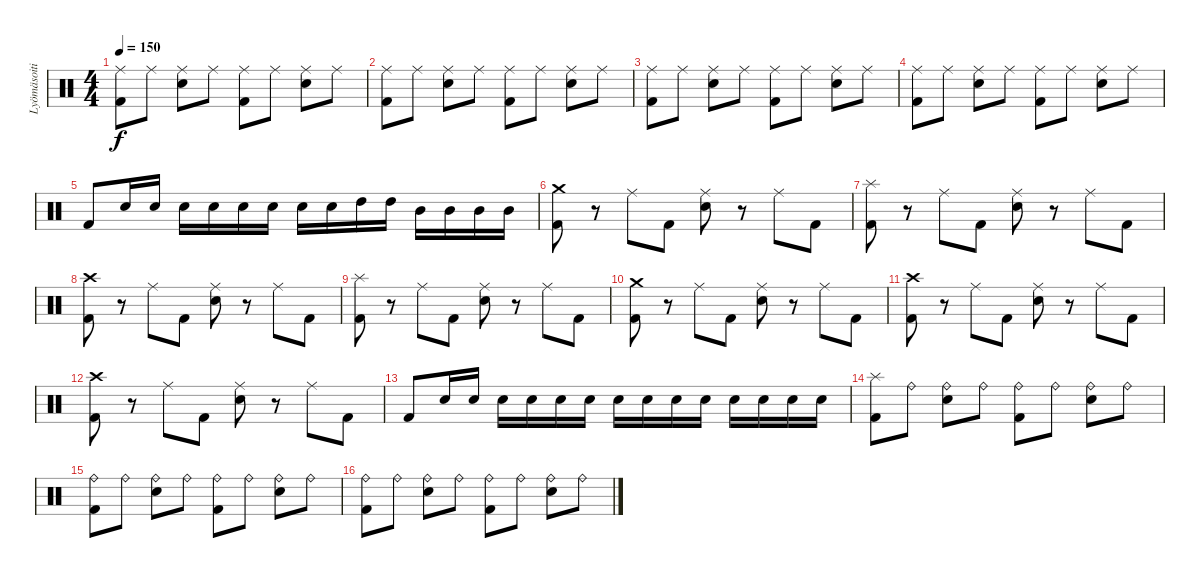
\track ("Lyömäsoitin" "Lyömäsoiti") {instrument percussion}
\staff {score}
\articulation defaults
\ts (4 4)
\tempo 150
\clef neutral
\ks c
("Ride (middle)" "Kick (hit) 2").8{dy f} "Ride (middle)".8 ("Ride (middle)" "Electric Snare (hit)").8 "Ride (middle)".8 ("Ride (middle)" "Kick (hit) 2").8 "Ride (middle)".8 ("Ride (middle)" "Electric Snare (hit)").8 "Ride (middle)".8 |
("Ride (middle)" "Kick (hit) 2").8 "Ride (middle)".8 ("Ride (middle)" "Electric Snare (hit)").8 "Ride (middle)".8 ("Ride (middle)" "Kick (hit) 2").8 "Ride (middle)".8 ("Ride (middle)" "Electric Snare (hit)").8 "Ride (middle)".8 |
("Ride (middle)" "Kick (hit) 2").8 "Ride (middle)".8 ("Ride (middle)" "Electric Snare (hit)").8 "Ride (middle)".8 ("Ride (middle)" "Kick (hit) 2").8 "Ride (middle)".8 ("Ride (middle)" "Electric Snare (hit)").8 "Ride (middle)".8 |
("Ride (middle)" "Kick (hit) 2").8 "Ride (middle)".8 ("Ride (middle)" "Electric Snare (hit)").8 "Ride (middle)".8 ("Ride (middle)" "Kick (hit) 2").8 "Ride (middle)".8 ("Ride (middle)" "Electric Snare (hit)").8 "Ride (middle)".8 |
"Kick (hit) 2".8 "Electric Snare (hit)".16 "Electric Snare (hit)".16 "Electric Snare (hit)".16 "Electric Snare (hit)".16 "Electric Snare (hit)".16 "Electric Snare (hit)".16 "Electric Snare (hit)".16 "Electric Snare (hit)".16 "High Tom (hit)".16 "High Tom (hit)".16 "Mid Tom (hit)".16 "Mid Tom (hit)".16 "Mid Tom (hit)".16 "Mid Tom (hit)".16 |
("Crash medium (hit)" "Kick (hit) 2").8 r.8 "Ride (middle)".8 "Kick (hit) 2".8 ("Ride (middle)" "Electric Snare (hit)").8 r.8 "Ride (middle)".8 "Kick (hit) 2".8 |
("Splash (hit)" "Kick (hit) 2").8 r.8 "Ride (middle)".8 "Kick (hit) 2".8 ("Ride (middle)" "Electric Snare (hit)").8 r.8 "Ride (middle)".8 "Kick (hit) 2".8 |
("Crash high (hit)" "Kick (hit) 2").8 r.8 "Ride (middle)".8 "Kick (hit) 2".8 ("Ride (middle)" "Electric Snare (hit)").8 r.8 "Ride (middle)".8 "Kick (hit) 2".8 |
("Splash (hit)" "Kick (hit) 2").8 r.8 "Ride (middle)".8 "Kick (hit) 2".8 ("Ride (middle)" "Electric Snare (hit)").8 r.8 "Ride (middle)".8 "Kick (hit) 2".8 |
("Crash medium (hit)" "Kick (hit) 2").8 r.8 "Ride (middle)".8 "Kick (hit) 2".8 ("Ride (middle)" "Electric Snare (hit)").8 r.8 "Ride (middle)".8 "Kick (hit) 2".8 |
("Crash high (hit)" "Kick (hit) 2").8 r.8 "Ride (middle)".8 "Kick (hit) 2".8 ("Ride (middle)" "Electric Snare (hit)").8 r.8 "Ride (middle)".8 "Kick (hit) 2".8 |
("Crash high (hit)" "Kick (hit) 2").8 r.8 "Ride (middle)".8 "Kick (hit) 2".8 ("Ride (middle)" "Electric Snare (hit)").8 r.8 "Ride (middle)".8 "Kick (hit) 2".8 |
"Kick (hit) 2".8 "Electric Snare (hit)".16 "Electric Snare (hit)".16 "Electric Snare (hit)".16 "Electric Snare (hit)".16 "Electric Snare (hit)".16 "Electric Snare (hit)".16 "Electric Snare (hit)".16 "Electric Snare (hit)".16 "Electric Snare (hit)".16 "Electric Snare (hit)".16 "Electric Snare (hit)".16 "Electric Snare (hit)".16 "Electric Snare (hit)".16 "Electric Snare (hit)".16 |
("Splash (hit)" "Kick (hit) 2").8 "Ride (bell)".8 ("Ride (bell)" "Electric Snare (hit)").8 "Ride (bell)".8 ("Ride (bell)" "Kick (hit) 2").8 "Ride (bell)".8 ("Ride (bell)" "Electric Snare (hit)").8 "Ride (bell)".8 |
("Ride (bell)" "Kick (hit) 2").8 "Ride (bell)".8 ("Ride (bell)" "Electric Snare (hit)").8 "Ride (bell)".8 ("Ride (bell)" "Kick (hit) 2").8 "Ride (bell)".8 ("Ride (bell)" "Electric Snare (hit)").8 "Ride (bell)".8 |
("Ride (bell)" "Kick (hit) 2").8 "Ride (bell)".8 ("Ride (bell)" "Electric Snare (hit)").8 "Ride (bell)".8 ("Ride (bell)" "Kick (hit) 2").8 "Ride (bell)".8 ("Ride (bell)" "Electric Snare (hit)").8 "Ride (bell)".8
